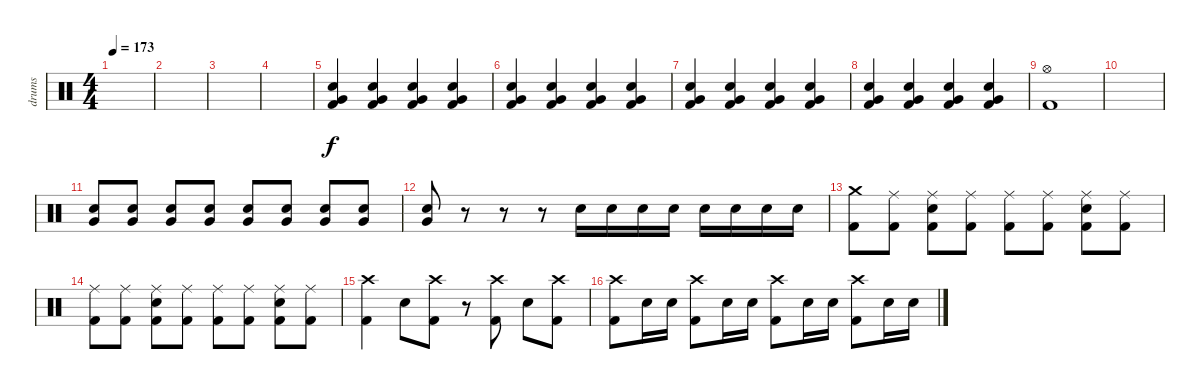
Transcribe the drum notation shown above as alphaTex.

\track ("drums" "drums") {instrument percussion}
\staff {score}
\articulation defaults
\ts (4 4)
\tempo 173
\clef neutral
\ks c
|
|
|
|
("Electric Snare (hit)" "Kick (hit) 2" "Very Low Tom (hit)").4 ("Electric Snare (hit)" "Kick (hit) 2" "Very Low Tom (hit)").4 ("Electric Snare (hit)" "Kick (hit) 2" "Very Low Tom (hit)").4 ("Electric Snare (hit)" "Kick (hit) 2" "Very Low Tom (hit)").4 |
("Electric Snare (hit)" "Kick (hit) 2" "Very Low Tom (hit)").4 ("Electric Snare (hit)" "Kick (hit) 2" "Very Low Tom (hit)").4 ("Electric Snare (hit)" "Kick (hit) 2" "Very Low Tom (hit)").4 ("Electric Snare (hit)" "Kick (hit) 2" "Very Low Tom (hit)").4 |
("Electric Snare (hit)" "Kick (hit) 2" "Very Low Tom (hit)").4 ("Electric Snare (hit)" "Kick (hit) 2" "Very Low Tom (hit)").4 ("Electric Snare (hit)" "Kick (hit) 2" "Very Low Tom (hit)").4 ("Electric Snare (hit)" "Kick (hit) 2" "Very Low Tom (hit)").4 |
("Electric Snare (hit)" "Kick (hit) 2" "Very Low Tom (hit)").4 ("Electric Snare (hit)" "Kick (hit) 2" "Very Low Tom (hit)").4 ("Electric Snare (hit)" "Kick (hit) 2" "Very Low Tom (hit)").4 ("Electric Snare (hit)" "Kick (hit) 2" "Very Low Tom (hit)").4 |
("Kick (hit) 2" "Hi-Hat (open)").1 |
|
("Electric Snare (hit)" "Very Low Tom (hit)").8 ("Electric Snare (hit)" "Very Low Tom (hit)").8 ("Electric Snare (hit)" "Very Low Tom (hit)").8 ("Electric Snare (hit)" "Very Low Tom (hit)").8 ("Electric Snare (hit)" "Very Low Tom (hit)").8 ("Electric Snare (hit)" "Very Low Tom (hit)").8 ("Electric Snare (hit)" "Very Low Tom (hit)").8 ("Electric Snare (hit)" "Very Low Tom (hit)").8 |
("Electric Snare (hit)" "Very Low Tom (hit)").8 r.8 r.8 r.8 "Electric Snare (hit)".16 "Electric Snare (hit)".16 "Electric Snare (hit)".16 "Electric Snare (hit)".16 "Electric Snare (hit)".16 "Electric Snare (hit)".16 "Electric Snare (hit)".16 "Electric Snare (hit)".16 |
("Crash medium (hit)" "Kick (hit) 2").8 ("Ride (middle)" "Kick (hit) 2").8 ("Ride (middle)" "Electric Snare (hit)" "Kick (hit) 2").8 ("Ride (middle)" "Kick (hit) 2").8 ("Ride (middle)" "Kick (hit) 2").8 ("Ride (middle)" "Kick (hit) 2").8 ("Ride (middle)" "Electric Snare (hit)" "Kick (hit) 2").8 ("Ride (middle)" "Kick (hit) 2").8 |
("Ride (middle)" "Kick (hit) 2").8 ("Ride (middle)" "Kick (hit) 2").8 ("Ride (middle)" "Electric Snare (hit)" "Kick (hit) 2").8 ("Ride (middle)" "Kick (hit) 2").8 ("Ride (middle)" "Kick (hit) 2").8 ("Ride (middle)" "Kick (hit) 2").8 ("Ride (middle)" "Electric Snare (hit)" "Kick (hit) 2").8 ("Ride (middle)" "Kick (hit) 2").8 |
("Crash high (hit)" "Kick (hit) 2").4 "Electric Snare (hit)".8 ("Crash high (hit)" "Kick (hit) 2").8 r.8 ("Crash high (hit)" "Kick (hit) 2").8 "Electric Snare (hit)".8 ("Crash high (hit)" "Kick (hit) 2").8 |
("Crash high (hit)" "Kick (hit) 2").8 "Electric Snare (hit)".16 "Electric Snare (hit)".16 ("Crash high (hit)" "Kick (hit) 2").8 "Electric Snare (hit)".16 "Electric Snare (hit)".16 ("Crash high (hit)" "Kick (hit) 2").8 "Electric Snare (hit)".16 "Electric Snare (hit)".16 ("Crash high (hit)" "Kick (hit) 2").8 "Electric Snare (hit)".16 "Electric Snare (hit)".16
